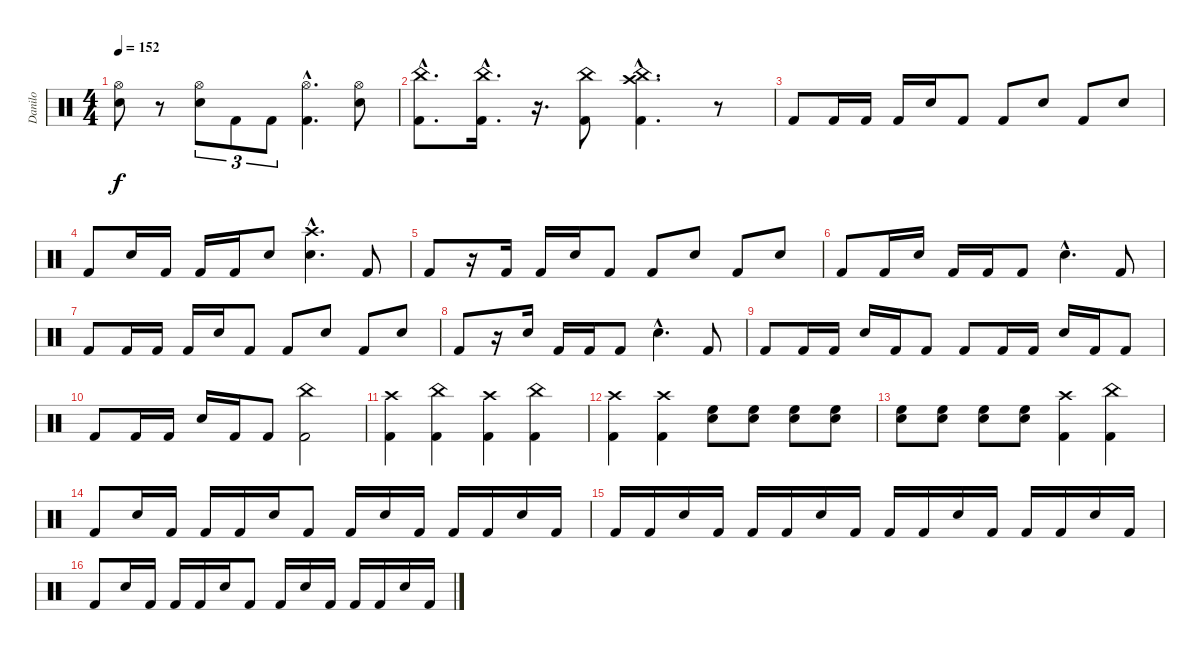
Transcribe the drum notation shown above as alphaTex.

\track ("Danilo" "Danilo") {instrument percussion}
\staff {score}
\articulation defaults
\ts (4 4)
\tempo 152
\clef neutral
\ks c
("Snare (hit) 2" "Hi-Hat (open)").8{dy f} r.8 ("Snare (hit) 2" "Hi-Hat (open)").8{tu (3 2)} "Kick (hit) 2".8{tu (3 2)} "Kick (hit) 2".8{tu (3 2)} ("Kick (hit) 2"{hac} "Hi-Hat (open)"{hac}).4{d} ("Snare (hit) 2" "Hi-Hat (open)").8 |
("China (hit)"{hac} "Kick (hit) 2"{hac}).8{d} ("China (hit)"{hac} "Kick (hit) 2"{hac}).16{d} r.16{d} ("China (hit)" "Kick (hit) 2").8 ("China (hit)"{hac} "Crash high (hit)"{hac} "Kick (hit) 2"{hac}).4{d} r.8 |
"Kick (hit) 2".8 "Kick (hit) 2".16 "Kick (hit) 2".16 "Kick (hit) 2".16 "Snare (hit) 2".16 "Kick (hit) 2".8 "Kick (hit) 2".8 "Snare (hit) 2".8 "Kick (hit) 2".8 "Snare (hit) 2".8 |
"Kick (hit) 2".8 "Snare (hit) 2".16 "Kick (hit) 2".16 "Kick (hit) 2".16 "Kick (hit) 2".16 "Snare (hit) 2".8 ("Crash high (hit)"{hac} "Snare (hit) 2"{hac}).4{d} "Kick (hit) 2".8 |
"Kick (hit) 2".8 r.16 "Kick (hit) 2".16 "Kick (hit) 2".16 "Snare (hit) 2".16 "Kick (hit) 2".8 "Kick (hit) 2".8 "Snare (hit) 2".8 "Kick (hit) 2".8 "Snare (hit) 2".8 |
"Kick (hit) 2".8 "Kick (hit) 2".16 "Snare (hit) 2".16 "Kick (hit) 2".16 "Kick (hit) 2".16 "Kick (hit) 2".8 "Snare (hit) 2"{hac}.4{d} "Kick (hit) 2".8 |
"Kick (hit) 2".8 "Kick (hit) 2".16 "Kick (hit) 2".16 "Kick (hit) 2".16 "Snare (hit) 2".16 "Kick (hit) 2".8 "Kick (hit) 2".8 "Snare (hit) 2".8 "Kick (hit) 2".8 "Snare (hit) 2".8 |
"Kick (hit) 2".8 r.16 "Snare (hit) 2".16 "Kick (hit) 2".16 "Kick (hit) 2".16 "Kick (hit) 2".8 "Snare (hit) 2"{hac}.4{d} "Kick (hit) 2".8 |
"Kick (hit) 2".8 "Kick (hit) 2".16 "Kick (hit) 2".16 "Snare (hit) 2".16 "Kick (hit) 2".16 "Kick (hit) 2".8 "Kick (hit) 2".8 "Kick (hit) 2".16 "Kick (hit) 2".16 "Snare (hit) 2".16 "Kick (hit) 2".16 "Kick (hit) 2".8 |
"Kick (hit) 2".8 "Kick (hit) 2".16 "Kick (hit) 2".16 "Snare (hit) 2".16 "Kick (hit) 2".16 "Kick (hit) 2".8 ("China (hit)" "Kick (hit) 2").2 |
("Kick (hit) 2" "Crash high (hit)").4 ("Kick (hit) 2" "China (hit)").4 ("Kick (hit) 2" "Crash high (hit)").4 ("Kick (hit) 2" "China (hit)").4 |
("Kick (hit) 2" "Crash high (hit)").4 ("Kick (hit) 2" "Crash high (hit)").4 ("High Floor Tom (hit)" "Snare (hit) 2").8 ("High Floor Tom (hit)" "Snare (hit) 2").8 ("High Floor Tom (hit)" "Snare (hit) 2").8 ("High Floor Tom (hit)" "Snare (hit) 2").8 |
("High Floor Tom (hit)" "Snare (hit) 2").8 ("High Floor Tom (hit)" "Snare (hit) 2").8 ("High Floor Tom (hit)" "Snare (hit) 2").8 ("High Floor Tom (hit)" "Snare (hit) 2").8 ("Crash high (hit)" "Kick (hit) 2").4 ("China (hit)" "Kick (hit) 2").4 |
"Kick (hit) 2".8 "Snare (hit) 2".16 "Kick (hit) 2".16 "Kick (hit) 2".16 "Kick (hit) 2".16 "Snare (hit) 2".16 "Kick (hit) 2".8 "Kick (hit) 2".16 "Snare (hit) 2".16 "Kick (hit) 2".16 "Kick (hit) 2".16 "Kick (hit) 2".16 "Snare (hit) 2".16 "Kick (hit) 2".16 |
"Kick (hit) 2".16 "Kick (hit) 2".16 "Snare (hit) 2".16 "Kick (hit) 2".16 "Kick (hit) 2".16 "Kick (hit) 2".16 "Snare (hit) 2".16 "Kick (hit) 2".16 "Kick (hit) 2".16 "Kick (hit) 2".16 "Snare (hit) 2".16 "Kick (hit) 2".16 "Kick (hit) 2".16 "Kick (hit) 2".16 "Snare (hit) 2".16 "Kick (hit) 2".16 |
"Kick (hit) 2".8 "Snare (hit) 2".16 "Kick (hit) 2".16 "Kick (hit) 2".16 "Kick (hit) 2".16 "Snare (hit) 2".16 "Kick (hit) 2".8 "Kick (hit) 2".16 "Snare (hit) 2".16 "Kick (hit) 2".16 "Kick (hit) 2".16 "Kick (hit) 2".16 "Snare (hit) 2".16 "Kick (hit) 2".16
